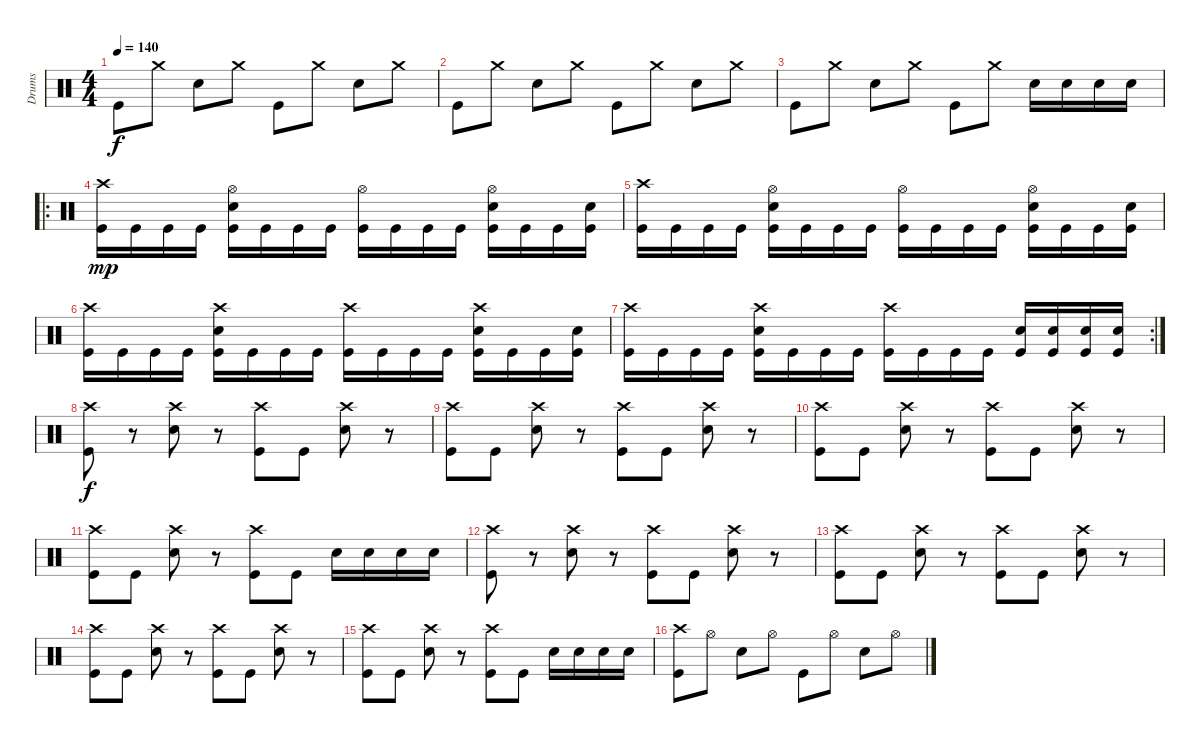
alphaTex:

\track ("Drums" "Drums") {instrument percussion}
\staff {score}
\articulation defaults
\ts (4 4)
\tempo 140
\clef neutral
\ks c "Kick (hit)".8{dy f} "Crash medium (hit)".8 "Electric Snare (hit)".8 "Crash medium (hit)".8 "Kick (hit)".8 "Crash medium (hit)".8 "Electric Snare (hit)".8 "Crash medium (hit)".8
|
"Kick (hit)".8 "Crash medium (hit)".8 "Electric Snare (hit)".8 "Crash medium (hit)".8 "Kick (hit)".8 "Crash medium (hit)".8 "Electric Snare (hit)".8 "Crash medium (hit)".8 |
"Kick (hit)".8 "Crash medium (hit)".8 "Electric Snare (hit)".8 "Crash medium (hit)".8 "Kick (hit)".8 "Crash medium (hit)".8 "Electric Snare (hit)".16 "Electric Snare (hit)".16 "Electric Snare (hit)".16 "Electric Snare (hit)".16 |
\ro
("Crash high (hit)" "Kick (hit)").16{dy mp} "Kick (hit)".16 "Kick (hit)".16 "Kick (hit)".16 ("Electric Snare (hit)" "Hi-Hat (open)" "Kick (hit)").16 "Kick (hit)".16 "Kick (hit)".16 "Kick (hit)".16 ("Hi-Hat (open)" "Kick (hit)").16 "Kick (hit)".16 "Kick (hit)".16 "Kick (hit)".16 ("Electric Snare (hit)" "Hi-Hat (open)" "Kick (hit)").16 "Kick (hit)".16 "Kick (hit)".16 ("Electric Snare (hit)" "Kick (hit)").16 |
("Crash high (hit)" "Kick (hit)").16 "Kick (hit)".16 "Kick (hit)".16 "Kick (hit)".16 ("Electric Snare (hit)" "Hi-Hat (open)" "Kick (hit)").16 "Kick (hit)".16 "Kick (hit)".16 "Kick (hit)".16 ("Hi-Hat (open)" "Kick (hit)").16 "Kick (hit)".16 "Kick (hit)".16 "Kick (hit)".16 ("Electric Snare (hit)" "Hi-Hat (open)" "Kick (hit)").16 "Kick (hit)".16 "Kick (hit)".16 ("Electric Snare (hit)" "Kick (hit)").16 |
("Crash high (hit)" "Kick (hit)").16 "Kick (hit)".16 "Kick (hit)".16 "Kick (hit)".16 ("Electric Snare (hit)" "Crash high (hit)" "Kick (hit)").16 "Kick (hit)".16 "Kick (hit)".16 "Kick (hit)".16 ("Crash high (hit)" "Kick (hit)").16 "Kick (hit)".16 "Kick (hit)".16 "Kick (hit)".16 ("Electric Snare (hit)" "Crash high (hit)" "Kick (hit)").16 "Kick (hit)".16 "Kick (hit)".16 ("Electric Snare (hit)" "Kick (hit)").16 |
\rc 2
("Crash high (hit)" "Kick (hit)").16 "Kick (hit)".16 "Kick (hit)".16 "Kick (hit)".16 ("Electric Snare (hit)" "Crash high (hit)" "Kick (hit)").16 "Kick (hit)".16 "Kick (hit)".16 "Kick (hit)".16 ("Crash high (hit)" "Kick (hit)").16 "Kick (hit)".16 "Kick (hit)".16 "Kick (hit)".16 ("Electric Snare (hit)" "Kick (hit)").16 ("Electric Snare (hit)" "Kick (hit)").16 ("Electric Snare (hit)" "Kick (hit)").16 ("Electric Snare (hit)" "Kick (hit)").16 |
("Crash high (hit)" "Kick (hit)").8{dy f} r.8 ("Electric Snare (hit)" "Crash high (hit)").8 r.8 ("Crash high (hit)" "Kick (hit)").8 "Kick (hit)".8 ("Electric Snare (hit)" "Crash high (hit)").8 r.8 |
("Crash high (hit)" "Kick (hit)").8 "Kick (hit)".8 ("Electric Snare (hit)" "Crash high (hit)").8 r.8 ("Crash high (hit)" "Kick (hit)").8 "Kick (hit)".8 ("Crash high (hit)" "Electric Snare (hit)").8 r.8 |
("Crash high (hit)" "Kick (hit)").8 "Kick (hit)".8 ("Electric Snare (hit)" "Crash high (hit)").8 r.8 ("Crash high (hit)" "Kick (hit)").8 "Kick (hit)".8 ("Electric Snare (hit)" "Crash high (hit)").8 r.8 |
("Crash high (hit)" "Kick (hit)").8 "Kick (hit)".8 ("Electric Snare (hit)" "Crash high (hit)").8 r.8 ("Crash high (hit)" "Kick (hit)").8 "Kick (hit)".8 "Electric Snare (hit)".16 "Electric Snare (hit)".16 "Electric Snare (hit)".16 "Electric Snare (hit)".16 |
("Crash high (hit)" "Kick (hit)").8 r.8 ("Electric Snare (hit)" "Crash high (hit)").8 r.8 ("Crash high (hit)" "Kick (hit)").8 "Kick (hit)".8 ("Electric Snare (hit)" "Crash high (hit)").8 r.8 |
("Crash high (hit)" "Kick (hit)").8 "Kick (hit)".8 ("Electric Snare (hit)" "Crash high (hit)").8 r.8 ("Crash high (hit)" "Kick (hit)").8 "Kick (hit)".8 ("Crash high (hit)" "Electric Snare (hit)").8 r.8 |
("Crash high (hit)" "Kick (hit)").8 "Kick (hit)".8 ("Electric Snare (hit)" "Crash high (hit)").8 r.8 ("Crash high (hit)" "Kick (hit)").8 "Kick (hit)".8 ("Electric Snare (hit)" "Crash high (hit)").8 r.8 |
("Crash high (hit)" "Kick (hit)").8 "Kick (hit)".8 ("Electric Snare (hit)" "Crash high (hit)").8 r.8 ("Crash high (hit)" "Kick (hit)").8 "Kick (hit)".8 "Electric Snare (hit)".16 "Electric Snare (hit)".16 "Electric Snare (hit)".16 "Electric Snare (hit)".16 |
("Crash high (hit)" "Kick (hit)").8 "Hi-Hat (open)".8 "Electric Snare (hit)".8 "Hi-Hat (open)".8 "Kick (hit)".8 "Hi-Hat (open)".8 "Electric Snare (hit)".8 "Hi-Hat (open)".8
